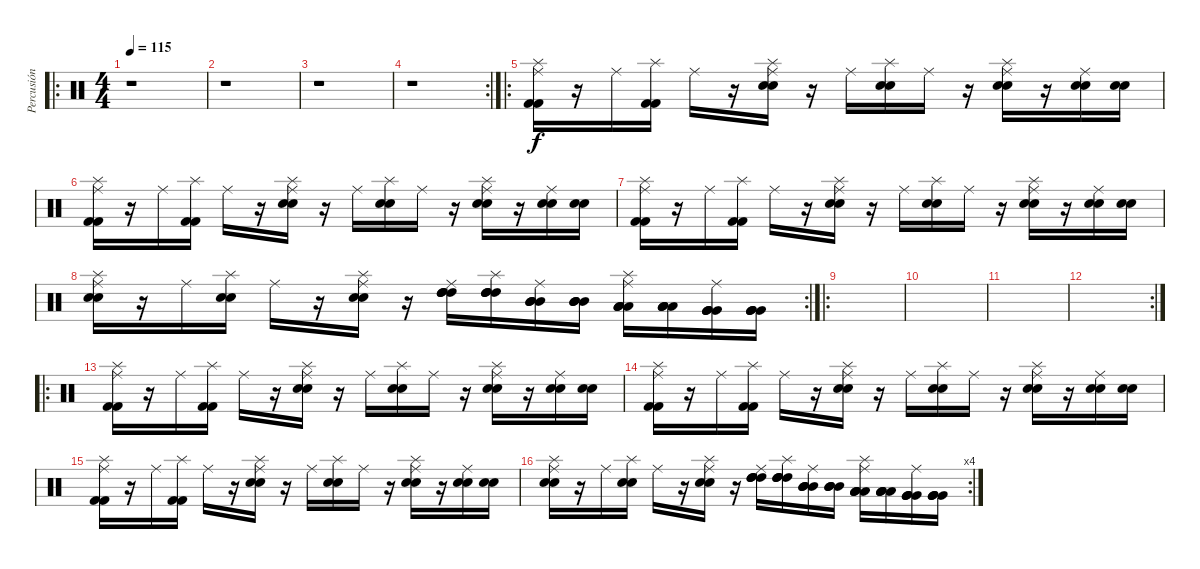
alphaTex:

\track ("Percusión" "Percusión") {instrument percussion}
\staff {score}
\articulation defaults
\ro
\ts (4 4)
\tempo 115
\clef neutral
\ks c
r.1{dy f} |
r.1 |
r.1 |
\rc 2
r.1 |
\ro
("Splash (hit)" "Ride (middle)" "Kick (hit) 2" "Kick (hit) 2").16 r.16 "Ride (middle)".16 ("Splash (hit)" "Kick (hit) 2" "Kick (hit) 2").16 "Ride (middle)".16 r.16 ("Splash (hit)" "Ride (middle)" "Electric Snare (hit)" "Electric Snare (hit)").16 r.16 "Ride (middle)".16 ("Splash (hit)" "Electric Snare (hit)" "Electric Snare (hit)").16 "Ride (middle)".16 r.16 ("Splash (hit)" "Ride (middle)" "Electric Snare (hit)" "Electric Snare (hit)").16 r.16 ("Ride (middle)" "Electric Snare (hit)" "Electric Snare (hit)").16 ("Electric Snare (hit)" "Electric Snare (hit)").16 |
("Splash (hit)" "Ride (middle)" "Kick (hit) 2" "Kick (hit) 2").16 r.16 "Ride (middle)".16 ("Splash (hit)" "Kick (hit) 2" "Kick (hit) 2").16 "Ride (middle)".16 r.16 ("Splash (hit)" "Ride (middle)" "Electric Snare (hit)" "Electric Snare (hit)").16 r.16 "Ride (middle)".16 ("Splash (hit)" "Electric Snare (hit)" "Electric Snare (hit)").16 "Ride (middle)".16 r.16 ("Splash (hit)" "Ride (middle)" "Electric Snare (hit)" "Electric Snare (hit)").16 r.16 ("Ride (middle)" "Electric Snare (hit)" "Electric Snare (hit)").16 ("Electric Snare (hit)" "Electric Snare (hit)").16 |
("Splash (hit)" "Ride (middle)" "Kick (hit) 2" "Kick (hit) 2").16 r.16 "Ride (middle)".16 ("Splash (hit)" "Kick (hit) 2" "Kick (hit) 2").16 "Ride (middle)".16 r.16 ("Splash (hit)" "Ride (middle)" "Electric Snare (hit)" "Electric Snare (hit)").16 r.16 "Ride (middle)".16 ("Splash (hit)" "Electric Snare (hit)" "Electric Snare (hit)").16 "Ride (middle)".16 r.16 ("Splash (hit)" "Ride (middle)" "Electric Snare (hit)" "Electric Snare (hit)").16 r.16 ("Ride (middle)" "Electric Snare (hit)" "Electric Snare (hit)").16 ("Electric Snare (hit)" "Electric Snare (hit)").16 |
\rc 2
("Splash (hit)" "Ride (middle)" "Electric Snare (hit)" "Electric Snare (hit)").16 r.16 "Ride (middle)".16 ("Splash (hit)" "Electric Snare (hit)" "Electric Snare (hit)").16 "Ride (middle)".16 r.16 ("Splash (hit)" "Ride (middle)" "Electric Snare (hit)" "Electric Snare (hit)").16 r.16 ("Ride (middle)" "High Tom (hit)" "High Tom (hit)" "High Tom (hit)" "High Tom (hit)").16 ("Splash (hit)" "High Tom (hit)" "High Tom (hit)" "High Tom (hit)" "High Tom (hit)").16 ("Ride (middle)" "Mid Tom (hit)" "Mid Tom (hit)" "Mid Tom (hit)" "Mid Tom (hit)").16 ("Mid Tom (hit)" "Mid Tom (hit)" "Mid Tom (hit)" "Mid Tom (hit)").16 ("Splash (hit)" "Ride (middle)" "Low Tom (hit)" "Low Tom (hit)" "Low Tom (hit)" "Low Tom (hit)").16 ("Low Tom (hit)" "Low Tom (hit)" "Low Tom (hit)" "Low Tom (hit)").16 ("Ride (middle)" "Very Low Tom (hit)" "Very Low Tom (hit)" "Very Low Tom (hit)" "Very Low Tom (hit)").16 ("Very Low Tom (hit)" "Very Low Tom (hit)" "Very Low Tom (hit)" "Very Low Tom (hit)").16 |
\ro
|
|
|
\rc 2
|
\ro
("Splash (hit)" "Ride (middle)" "Kick (hit) 2" "Kick (hit) 2").16 r.16 "Ride (middle)".16 ("Splash (hit)" "Kick (hit) 2" "Kick (hit) 2").16 "Ride (middle)".16 r.16 ("Splash (hit)" "Ride (middle)" "Electric Snare (hit)" "Electric Snare (hit)").16 r.16 "Ride (middle)".16 ("Splash (hit)" "Electric Snare (hit)" "Electric Snare (hit)").16 "Ride (middle)".16 r.16 ("Splash (hit)" "Ride (middle)" "Electric Snare (hit)" "Electric Snare (hit)").16 r.16 ("Ride (middle)" "Electric Snare (hit)" "Electric Snare (hit)").16 ("Electric Snare (hit)" "Electric Snare (hit)").16 |
("Splash (hit)" "Ride (middle)" "Kick (hit) 2" "Kick (hit) 2").16 r.16 "Ride (middle)".16 ("Splash (hit)" "Kick (hit) 2" "Kick (hit) 2").16 "Ride (middle)".16 r.16 ("Splash (hit)" "Ride (middle)" "Electric Snare (hit)" "Electric Snare (hit)").16 r.16 "Ride (middle)".16 ("Splash (hit)" "Electric Snare (hit)" "Electric Snare (hit)").16 "Ride (middle)".16 r.16 ("Splash (hit)" "Ride (middle)" "Electric Snare (hit)" "Electric Snare (hit)").16 r.16 ("Ride (middle)" "Electric Snare (hit)" "Electric Snare (hit)").16 ("Electric Snare (hit)" "Electric Snare (hit)").16 |
("Splash (hit)" "Ride (middle)" "Kick (hit) 2" "Kick (hit) 2").16 r.16 "Ride (middle)".16 ("Splash (hit)" "Kick (hit) 2" "Kick (hit) 2").16 "Ride (middle)".16 r.16 ("Splash (hit)" "Ride (middle)" "Electric Snare (hit)" "Electric Snare (hit)").16 r.16 "Ride (middle)".16 ("Splash (hit)" "Electric Snare (hit)" "Electric Snare (hit)").16 "Ride (middle)".16 r.16 ("Splash (hit)" "Ride (middle)" "Electric Snare (hit)" "Electric Snare (hit)").16 r.16 ("Ride (middle)" "Electric Snare (hit)" "Electric Snare (hit)").16 ("Electric Snare (hit)" "Electric Snare (hit)").16 |
\rc 4
("Splash (hit)" "Ride (middle)" "Electric Snare (hit)" "Electric Snare (hit)").16 r.16 "Ride (middle)".16 ("Splash (hit)" "Electric Snare (hit)" "Electric Snare (hit)").16 "Ride (middle)".16 r.16 ("Splash (hit)" "Ride (middle)" "Electric Snare (hit)" "Electric Snare (hit)").16 r.16 ("Ride (middle)" "High Tom (hit)" "High Tom (hit)" "High Tom (hit)" "High Tom (hit)").16 ("Splash (hit)" "High Tom (hit)" "High Tom (hit)" "High Tom (hit)" "High Tom (hit)").16 ("Ride (middle)" "Mid Tom (hit)" "Mid Tom (hit)" "Mid Tom (hit)" "Mid Tom (hit)").16 ("Mid Tom (hit)" "Mid Tom (hit)" "Mid Tom (hit)" "Mid Tom (hit)").16 ("Splash (hit)" "Ride (middle)" "Low Tom (hit)" "Low Tom (hit)" "Low Tom (hit)" "Low Tom (hit)").16 ("Low Tom (hit)" "Low Tom (hit)" "Low Tom (hit)" "Low Tom (hit)").16 ("Ride (middle)" "Very Low Tom (hit)" "Very Low Tom (hit)" "Very Low Tom (hit)" "Very Low Tom (hit)").16 ("Very Low Tom (hit)" "Very Low Tom (hit)" "Very Low Tom (hit)" "Very Low Tom (hit)").16
